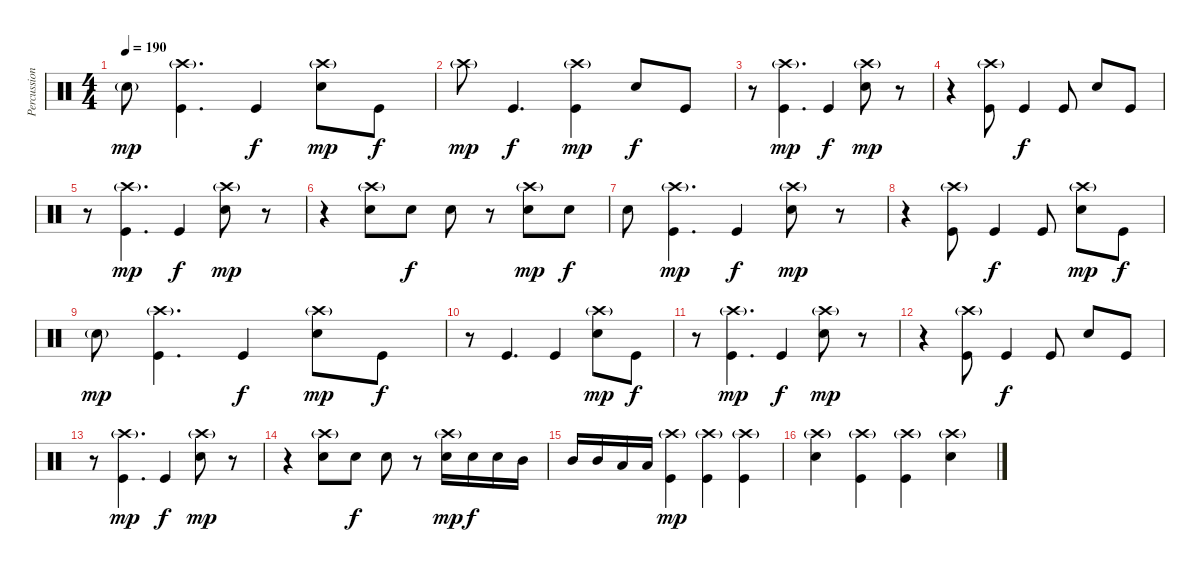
\track ("Percussion" "Percussion") {instrument percussion}
\staff {score}
\articulation defaults
\ts (4 4)
\tempo 190
\clef neutral
\ks c "Electric Snare (hit)"{g}.8{dy mp}
("Kick (hit)" "Crash high (hit)"{g}).4{d} "Kick (hit)".4{dy f} ("Electric Snare (hit)" "Crash high (hit)"{g}).8{dy mp} "Kick (hit)".8{dy f} |
"Crash high (hit)"{g}.8{dy mp} "Kick (hit)".4{d dy f} ("Kick (hit)" "Crash high (hit)"{g}).4{dy mp} "Electric Snare (hit)".8{dy f} "Kick (hit)".8 |
r.8 ("Kick (hit)" "Crash high (hit)"{g}).4{d dy mp} "Kick (hit)".4{dy f} ("Electric Snare (hit)" "Crash high (hit)"{g}).8{dy mp} r.8 |
r.4 ("Kick (hit)" "Crash high (hit)"{g}).8 "Kick (hit)".4{dy f} "Kick (hit)".8 "Electric Snare (hit)".8 "Kick (hit)".8 |
r.8 ("Kick (hit)" "Crash high (hit)"{g}).4{d dy mp} "Kick (hit)".4{dy f} ("Electric Snare (hit)" "Crash high (hit)"{g}).8{dy mp} r.8 |
r.4 ("Electric Snare (hit)" "Crash high (hit)"{g}).8 "Electric Snare (hit)".8{dy f} "Electric Snare (hit)".8 r.8 ("Electric Snare (hit)" "Crash high (hit)"{g}).8{dy mp} "Electric Snare (hit)".8{dy f} |
"Electric Snare (hit)".8 ("Kick (hit)" "Crash high (hit)"{g}).4{d dy mp} "Kick (hit)".4{dy f} ("Electric Snare (hit)" "Crash high (hit)"{g}).8{dy mp} r.8 |
r.4 ("Kick (hit)" "Crash high (hit)"{g}).8 "Kick (hit)".4{dy f} "Kick (hit)".8 ("Electric Snare (hit)" "Crash high (hit)"{g}).8{dy mp} "Kick (hit)".8{dy f} |
"Electric Snare (hit)"{g}.8{dy mp} ("Kick (hit)" "Crash high (hit)"{g}).4{d} "Kick (hit)".4{dy f} ("Electric Snare (hit)" "Crash high (hit)"{g}).8{dy mp} "Kick (hit)".8{dy f} |
r.8 "Kick (hit)".4{d} "Kick (hit)".4 ("Electric Snare (hit)" "Crash high (hit)"{g}).8{dy mp} "Kick (hit)".8{dy f} |
r.8 ("Kick (hit)" "Crash high (hit)"{g}).4{d dy mp} "Kick (hit)".4{dy f} ("Electric Snare (hit)" "Crash high (hit)"{g}).8{dy mp} r.8 |
r.4 ("Kick (hit)" "Crash high (hit)"{g}).8 "Kick (hit)".4{dy f} "Kick (hit)".8 "Electric Snare (hit)".8 "Kick (hit)".8 |
r.8 ("Kick (hit)" "Crash high (hit)"{g}).4{d dy mp} "Kick (hit)".4{dy f} ("Electric Snare (hit)" "Crash high (hit)"{g}).8{dy mp} r.8 |
r.4 ("Electric Snare (hit)" "Crash high (hit)"{g}).8 "Electric Snare (hit)".8{dy f} "Electric Snare (hit)".8 r.8 ("Electric Snare (hit)" "Crash high (hit)"{g}).16{dy mp} "Electric Snare (hit)".16{dy f} "Electric Snare (hit)".16 "Mid Tom (hit)".16 |
"Mid Tom (hit)".16 "Mid Tom (hit)".16 "Low Tom (hit)".16 "Low Tom (hit)".16 ("Kick (hit)" "Crash high (hit)"{g}).4{dy mp} ("Kick (hit)" "Crash high (hit)"{g}).4 ("Kick (hit)" "Crash high (hit)"{g}).4 |
("Snare (hit) 2" "Crash high (hit)"{g}).4 ("Kick (hit)" "Crash high (hit)"{g}).4 ("Kick (hit)" "Crash high (hit)"{g}).4 ("Snare (hit) 2" "Crash high (hit)"{g}).4
